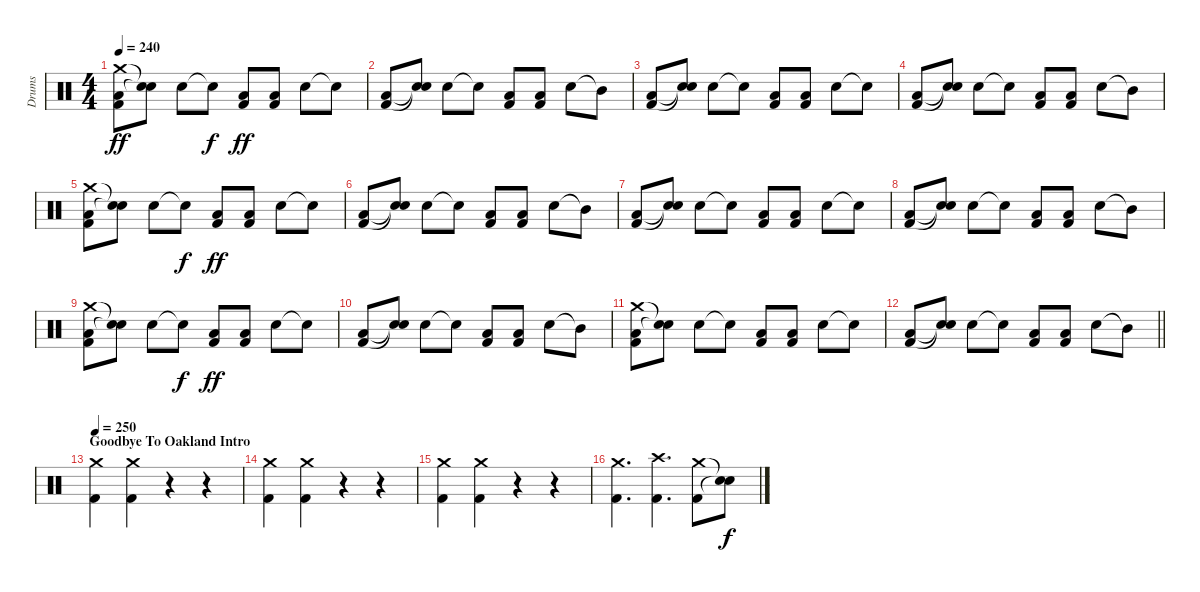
\track ("Drums" "Drums") {instrument percussion}
\staff {score}
\articulation defaults
\ts (4 4)
\tempo 240
\clef neutral
\ks c
("Crash medium (hit)" "Low Floor Tom (hit)" "Kick (hit) 2").8{dy ff} ("Snare (hit)"{t} "Snare (hit)"{t}).8 "Electric Snare (hit)".8 "Snare (hit)"{t}.8{dy f} ("Low Floor Tom (hit)" "Kick (hit) 2").8{dy ff} ("Low Floor Tom (hit)" "Kick (hit) 2").8 "Electric Snare (hit)".8 "Snare (hit)"{t}.8 |
("Low Floor Tom (hit)" "Kick (hit) 2").8 ("Snare (hit)"{t} "Snare (hit)"{t}).8 "Electric Snare (hit)".8 "Snare (hit)"{t}.8 ("Low Floor Tom (hit)" "Kick (hit) 2").8 ("Low Floor Tom (hit)" "Kick (hit) 2").8 "Electric Snare (hit)".8 "Mid Tom (hit)"{t}.8 |
("Low Floor Tom (hit)" "Kick (hit) 2").8 ("Snare (hit)"{t} "Snare (hit)"{t}).8 "Electric Snare (hit)".8 "Snare (hit)"{t}.8 ("Low Floor Tom (hit)" "Kick (hit) 2").8 ("Low Floor Tom (hit)" "Kick (hit) 2").8 "Electric Snare (hit)".8 "Snare (hit)"{t}.8 |
("Low Floor Tom (hit)" "Kick (hit) 2").8 ("Snare (hit)"{t} "Snare (hit)"{t}).8 "Electric Snare (hit)".8 "Snare (hit)"{t}.8 ("Low Floor Tom (hit)" "Kick (hit) 2").8 ("Low Floor Tom (hit)" "Kick (hit) 2").8 "Electric Snare (hit)".8 "Mid Tom (hit)"{t}.8 |
("Crash medium (hit)" "Low Floor Tom (hit)" "Kick (hit) 2").8 ("Snare (hit)"{t} "Snare (hit)"{t}).8 "Electric Snare (hit)".8 "Snare (hit)"{t}.8{dy f} ("Low Floor Tom (hit)" "Kick (hit) 2").8{dy ff} ("Low Floor Tom (hit)" "Kick (hit) 2").8 "Electric Snare (hit)".8 "Snare (hit)"{t}.8 |
("Low Floor Tom (hit)" "Kick (hit) 2").8 ("Snare (hit)"{t} "Snare (hit)"{t}).8 "Electric Snare (hit)".8 "Snare (hit)"{t}.8 ("Low Floor Tom (hit)" "Kick (hit) 2").8 ("Low Floor Tom (hit)" "Kick (hit) 2").8 "Electric Snare (hit)".8 "Mid Tom (hit)"{t}.8 |
("Low Floor Tom (hit)" "Kick (hit) 2").8 ("Snare (hit)"{t} "Snare (hit)"{t}).8 "Electric Snare (hit)".8 "Snare (hit)"{t}.8 ("Low Floor Tom (hit)" "Kick (hit) 2").8 ("Low Floor Tom (hit)" "Kick (hit) 2").8 "Electric Snare (hit)".8 "Snare (hit)"{t}.8 |
("Low Floor Tom (hit)" "Kick (hit) 2").8 ("Snare (hit)"{t} "Snare (hit)"{t}).8 "Electric Snare (hit)".8 "Snare (hit)"{t}.8 ("Low Floor Tom (hit)" "Kick (hit) 2").8 ("Low Floor Tom (hit)" "Kick (hit) 2").8 "Electric Snare (hit)".8 "Mid Tom (hit)"{t}.8 |
("Crash medium (hit)" "Low Floor Tom (hit)" "Kick (hit) 2").8 ("Snare (hit)"{t} "Snare (hit)"{t}).8 "Electric Snare (hit)".8 "Snare (hit)"{t}.8{dy f} ("Low Floor Tom (hit)" "Kick (hit) 2").8{dy ff} ("Low Floor Tom (hit)" "Kick (hit) 2").8 "Electric Snare (hit)".8 "Snare (hit)"{t}.8 |
("Low Floor Tom (hit)" "Kick (hit) 2").8 ("Snare (hit)"{t} "Snare (hit)"{t}).8 "Electric Snare (hit)".8 "Snare (hit)"{t}.8 ("Low Floor Tom (hit)" "Kick (hit) 2").8 ("Low Floor Tom (hit)" "Kick (hit) 2").8 "Electric Snare (hit)".8 "Mid Tom (hit)"{t}.8 |
("Crash medium (hit)" "Low Floor Tom (hit)" "Kick (hit) 2").8 ("Snare (hit)"{t} "Snare (hit)"{t}).8 "Electric Snare (hit)".8 "Snare (hit)"{t}.8 ("Low Floor Tom (hit)" "Kick (hit) 2").8 ("Low Floor Tom (hit)" "Kick (hit) 2").8 "Electric Snare (hit)".8 "Snare (hit)"{t}.8 |
\barLineRight lightlight
("Low Floor Tom (hit)" "Kick (hit) 2").8 ("Snare (hit)"{t} "Snare (hit)"{t}).8 "Electric Snare (hit)".8 "Snare (hit)"{t}.8 ("Low Floor Tom (hit)" "Kick (hit) 2").8 ("Low Floor Tom (hit)" "Kick (hit) 2").8 "Electric Snare (hit)".8 "Mid Tom (hit)"{t}.8 |
\section ("" "Goodbye To Oakland Intro")
\tempo 250
("Crash medium (hit)" "Kick (hit) 2").4 ("Crash medium (hit)" "Kick (hit) 2").4 r.4 r.4 |
("Crash medium (hit)" "Kick (hit) 2").4 ("Crash medium (hit)" "Kick (hit) 2").4 r.4 r.4 |
("Crash medium (hit)" "Kick (hit) 2").4 ("Crash medium (hit)" "Kick (hit) 2").4 r.4 r.4 |
("Crash medium (hit)" "Kick (hit) 2").4{d} ("Crash high (hit)" "Kick (hit) 2").4{d} ("Crash medium (hit)" "Kick (hit) 2").8 ("Snare (hit)"{t} "Snare (hit)"{t}).8{dy f}
